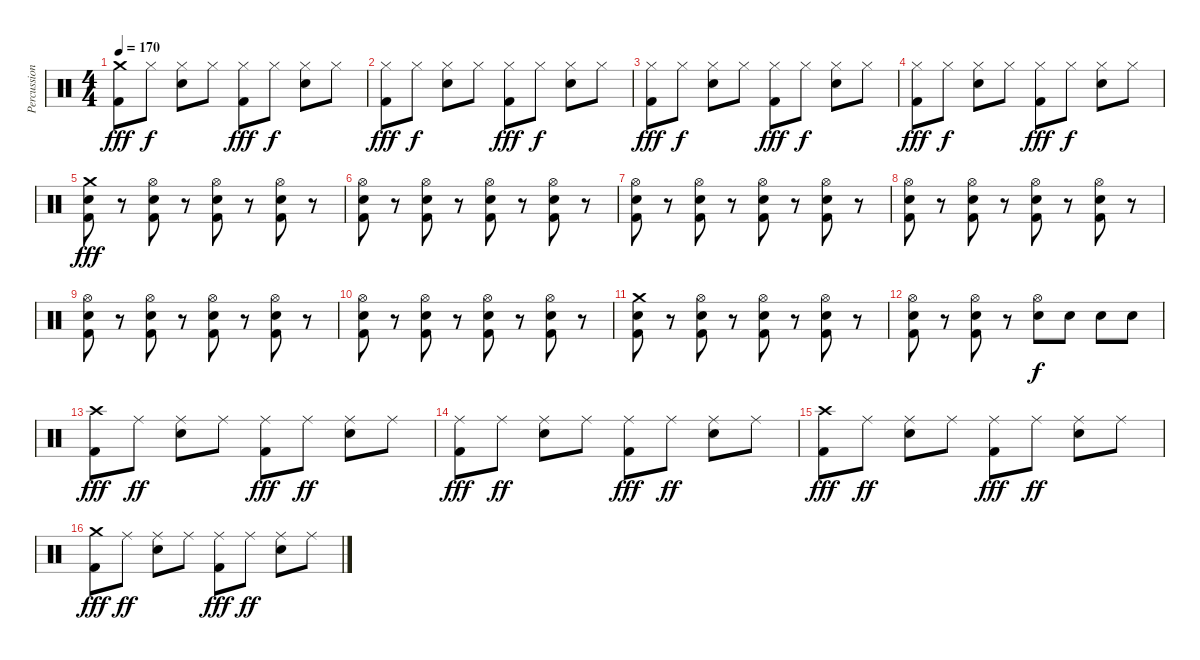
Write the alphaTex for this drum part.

\track ("Percussion" "Percussion") {instrument percussion}
\staff {score}
\articulation defaults
\ts (4 4)
\tempo 170
\clef neutral
\ks c
("Crash medium (hit)" "Kick (hit) 2").8{dy fff} "Hi-Hat (closed)".8{dy f} ("Hi-Hat (closed)" "Electric Snare (hit)").8 "Hi-Hat (closed)".8 ("Hi-Hat (closed)" "Kick (hit) 2").8{dy fff} "Hi-Hat (closed)".8{dy f} ("Hi-Hat (closed)" "Electric Snare (hit)").8 "Hi-Hat (closed)".8 |
("Hi-Hat (closed)" "Kick (hit) 2").8{dy fff} "Hi-Hat (closed)".8{dy f} ("Hi-Hat (closed)" "Electric Snare (hit)").8 "Hi-Hat (closed)".8 ("Hi-Hat (closed)" "Kick (hit) 2").8{dy fff} "Hi-Hat (closed)".8{dy f} ("Hi-Hat (closed)" "Electric Snare (hit)").8 "Hi-Hat (closed)".8 |
("Hi-Hat (closed)" "Kick (hit) 2").8{dy fff} "Hi-Hat (closed)".8{dy f} ("Hi-Hat (closed)" "Electric Snare (hit)").8 "Hi-Hat (closed)".8 ("Hi-Hat (closed)" "Kick (hit) 2").8{dy fff} "Hi-Hat (closed)".8{dy f} ("Hi-Hat (closed)" "Electric Snare (hit)").8 "Hi-Hat (closed)".8 |
("Hi-Hat (closed)" "Kick (hit) 2").8{dy fff} "Hi-Hat (closed)".8{dy f} ("Hi-Hat (closed)" "Electric Snare (hit)").8 "Hi-Hat (closed)".8 ("Hi-Hat (closed)" "Kick (hit) 2").8{dy fff} "Hi-Hat (closed)".8{dy f} ("Hi-Hat (closed)" "Electric Snare (hit)").8 "Hi-Hat (closed)".8 |
("Crash medium (hit)" "Electric Snare (hit)" "Kick (hit) 2").8{dy fff} r.8 ("Hi-Hat (open)" "Electric Snare (hit)" "Kick (hit) 2").8 r.8 ("Hi-Hat (open)" "Electric Snare (hit)" "Kick (hit) 2").8 r.8 ("Hi-Hat (open)" "Electric Snare (hit)" "Kick (hit) 2").8 r.8 |
("Hi-Hat (open)" "Electric Snare (hit)" "Kick (hit) 2").8 r.8 ("Hi-Hat (open)" "Electric Snare (hit)" "Kick (hit) 2").8 r.8 ("Hi-Hat (open)" "Electric Snare (hit)" "Kick (hit) 2").8 r.8 ("Hi-Hat (open)" "Electric Snare (hit)" "Kick (hit) 2").8 r.8 |
("Hi-Hat (open)" "Electric Snare (hit)" "Kick (hit) 2").8 r.8 ("Hi-Hat (open)" "Electric Snare (hit)" "Kick (hit) 2").8 r.8 ("Hi-Hat (open)" "Electric Snare (hit)" "Kick (hit) 2").8 r.8 ("Hi-Hat (open)" "Electric Snare (hit)" "Kick (hit) 2").8 r.8 |
("Hi-Hat (open)" "Electric Snare (hit)" "Kick (hit) 2").8 r.8 ("Hi-Hat (open)" "Electric Snare (hit)" "Kick (hit) 2").8 r.8 ("Hi-Hat (open)" "Electric Snare (hit)" "Kick (hit) 2").8 r.8 ("Hi-Hat (open)" "Electric Snare (hit)" "Kick (hit) 2").8 r.8 |
("Hi-Hat (open)" "Electric Snare (hit)" "Kick (hit) 2").8 r.8 ("Hi-Hat (open)" "Electric Snare (hit)" "Kick (hit) 2").8 r.8 ("Hi-Hat (open)" "Electric Snare (hit)" "Kick (hit) 2").8 r.8 ("Hi-Hat (open)" "Electric Snare (hit)" "Kick (hit) 2").8 r.8 |
("Hi-Hat (open)" "Electric Snare (hit)" "Kick (hit) 2").8 r.8 ("Hi-Hat (open)" "Electric Snare (hit)" "Kick (hit) 2").8 r.8 ("Hi-Hat (open)" "Electric Snare (hit)" "Kick (hit) 2").8 r.8 ("Hi-Hat (open)" "Electric Snare (hit)" "Kick (hit) 2").8 r.8 |
("Crash medium (hit)" "Electric Snare (hit)" "Kick (hit) 2").8 r.8 ("Hi-Hat (open)" "Electric Snare (hit)" "Kick (hit) 2").8 r.8 ("Hi-Hat (open)" "Electric Snare (hit)" "Kick (hit) 2").8 r.8 ("Hi-Hat (open)" "Electric Snare (hit)" "Kick (hit) 2").8 r.8 |
("Hi-Hat (open)" "Electric Snare (hit)" "Kick (hit) 2").8 r.8 ("Hi-Hat (open)" "Electric Snare (hit)" "Kick (hit) 2").8 r.8 ("Hi-Hat (open)" "Electric Snare (hit)").8{dy f} "Electric Snare (hit)".8 "Electric Snare (hit)".8 "Electric Snare (hit)".8 |
("Crash high (hit)" "Kick (hit) 2").8{dy fff} "Ride (middle)".8{dy ff} ("Ride (middle)" "Electric Snare (hit)").8 "Ride (middle)".8 ("Ride (middle)" "Kick (hit) 2").8{dy fff} "Ride (middle)".8{dy ff} ("Ride (middle)" "Electric Snare (hit)").8 "Ride (middle)".8 |
("Ride (middle)" "Kick (hit) 2").8{dy fff} "Ride (middle)".8{dy ff} ("Ride (middle)" "Electric Snare (hit)").8 "Ride (middle)".8 ("Ride (middle)" "Kick (hit) 2").8{dy fff} "Ride (middle)".8{dy ff} ("Ride (middle)" "Electric Snare (hit)").8 "Ride (middle)".8 |
("Crash high (hit)" "Kick (hit) 2").8{dy fff} "Ride (middle)".8{dy ff} ("Ride (middle)" "Electric Snare (hit)").8 "Ride (middle)".8 ("Ride (middle)" "Kick (hit) 2").8{dy fff} "Ride (middle)".8{dy ff} ("Ride (middle)" "Electric Snare (hit)").8 "Ride (middle)".8 |
("Crash medium (hit)" "Kick (hit) 2").8{dy fff} "Ride (middle)".8{dy ff} ("Ride (middle)" "Electric Snare (hit)").8 "Ride (middle)".8 ("Ride (middle)" "Kick (hit) 2").8{dy fff} "Ride (middle)".8{dy ff} ("Ride (middle)" "Electric Snare (hit)").8 "Ride (middle)".8
